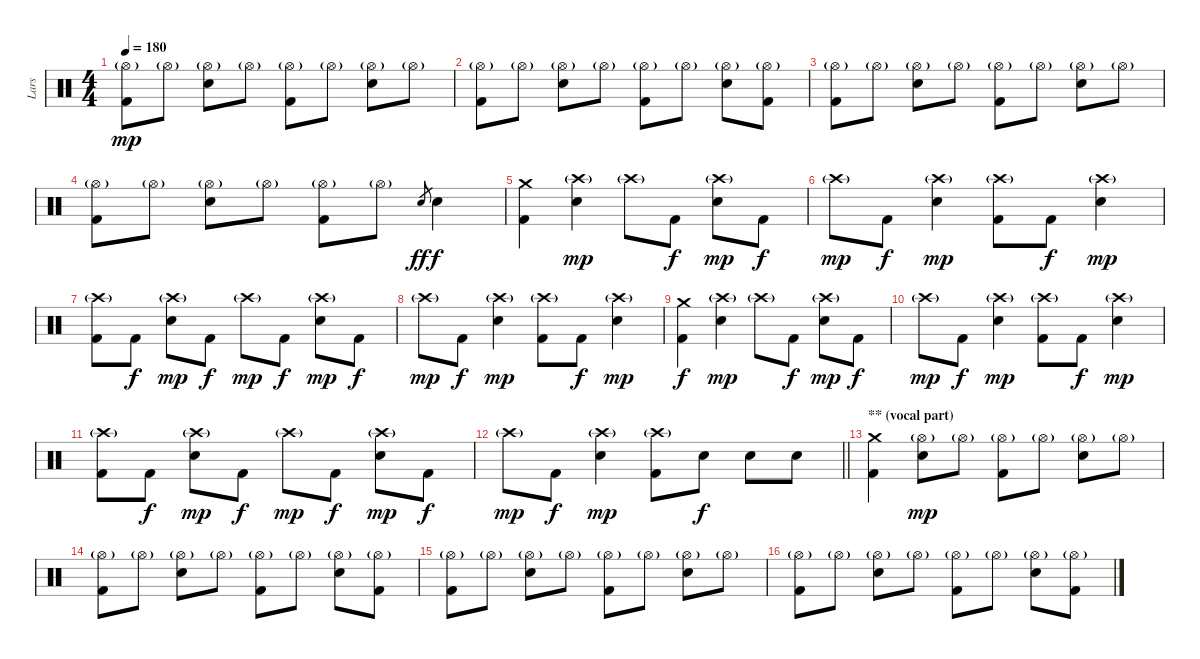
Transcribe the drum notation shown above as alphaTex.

\track ("Lars" "Lars") {instrument percussion}
\staff {score}
\articulation defaults
\ts (4 4)
\tempo 180
\clef neutral
\ks c
("Hi-Hat (open)"{g} "Kick (hit) 2").8{dy mp} "Hi-Hat (open)"{g}.8 ("Hi-Hat (open)"{g} "Electric Snare (hit)").8 "Hi-Hat (open)"{g}.8 ("Hi-Hat (open)"{g} "Kick (hit) 2").8 "Hi-Hat (open)"{g}.8 ("Hi-Hat (open)"{g} "Electric Snare (hit)").8 "Hi-Hat (open)"{g}.8 |
("Hi-Hat (open)"{g} "Kick (hit) 2").8 "Hi-Hat (open)"{g}.8 ("Hi-Hat (open)"{g} "Electric Snare (hit)").8 "Hi-Hat (open)"{g}.8 ("Hi-Hat (open)"{g} "Kick (hit) 2").8 "Hi-Hat (open)"{g}.8 ("Hi-Hat (open)"{g} "Electric Snare (hit)").8 ("Hi-Hat (open)"{g} "Kick (hit) 2").8 |
("Hi-Hat (open)"{g} "Kick (hit) 2").8 "Hi-Hat (open)"{g}.8 ("Hi-Hat (open)"{g} "Electric Snare (hit)").8 "Hi-Hat (open)"{g}.8 ("Hi-Hat (open)"{g} "Kick (hit) 2").8 "Hi-Hat (open)"{g}.8 ("Hi-Hat (open)"{g} "Electric Snare (hit)").8 "Hi-Hat (open)"{g}.8 |
("Hi-Hat (open)"{g} "Kick (hit) 2").8 "Hi-Hat (open)"{g}.8 ("Hi-Hat (open)"{g} "Electric Snare (hit)").8 "Hi-Hat (open)"{g}.8 ("Hi-Hat (open)"{g} "Kick (hit) 2").8 "Hi-Hat (open)"{g}.8 "Electric Snare (hit)".8{gr dy ff} "Electric Snare (hit)".4{dy f} |
("Crash medium (hit)" "Kick (hit) 2").4 ("Crash high (hit)"{g} "Electric Snare (hit)").4{dy mp} "Crash high (hit)"{g}.8 "Kick (hit) 2".8{dy f} ("Crash high (hit)"{g} "Electric Snare (hit)").8{dy mp} "Kick (hit) 2".8{dy f} |
"Crash high (hit)"{g}.8{dy mp} "Kick (hit) 2".8{dy f} ("Crash high (hit)"{g} "Electric Snare (hit)").4{dy mp} ("Crash high (hit)"{g} "Kick (hit) 2").8 "Kick (hit) 2".8{dy f} ("Crash high (hit)"{g} "Electric Snare (hit)").4{dy mp} |
("Crash high (hit)"{g} "Kick (hit) 2").8 "Kick (hit) 2".8{dy f} ("Crash high (hit)"{g} "Electric Snare (hit)").8{dy mp} "Kick (hit) 2".8{dy f} "Crash high (hit)"{g}.8{dy mp} "Kick (hit) 2".8{dy f} ("Crash high (hit)"{g} "Electric Snare (hit)").8{dy mp} "Kick (hit) 2".8{dy f} |
"Crash high (hit)"{g}.8{dy mp} "Kick (hit) 2".8{dy f} ("Crash high (hit)"{g} "Electric Snare (hit)").4{dy mp} ("Crash high (hit)"{g} "Kick (hit) 2").8 "Kick (hit) 2".8{dy f} ("Crash high (hit)"{g} "Electric Snare (hit)").4{dy mp} |
("Crash medium (hit)" "Kick (hit) 2").4{dy f} ("Crash high (hit)"{g} "Electric Snare (hit)").4{dy mp} "Crash high (hit)"{g}.8 "Kick (hit) 2".8{dy f} ("Crash high (hit)"{g} "Electric Snare (hit)").8{dy mp} "Kick (hit) 2".8{dy f} |
"Crash high (hit)"{g}.8{dy mp} "Kick (hit) 2".8{dy f} ("Crash high (hit)"{g} "Electric Snare (hit)").4{dy mp} ("Crash high (hit)"{g} "Kick (hit) 2").8 "Kick (hit) 2".8{dy f} ("Crash high (hit)"{g} "Electric Snare (hit)").4{dy mp} |
("Crash high (hit)"{g} "Kick (hit) 2").8 "Kick (hit) 2".8{dy f} ("Crash high (hit)"{g} "Electric Snare (hit)").8{dy mp} "Kick (hit) 2".8{dy f} "Crash high (hit)"{g}.8{dy mp} "Kick (hit) 2".8{dy f} ("Crash high (hit)"{g} "Electric Snare (hit)").8{dy mp} "Kick (hit) 2".8{dy f} |
\barLineRight lightlight "Crash high (hit)"{g}.8{dy mp} "Kick (hit) 2".8{dy f}
("Crash high (hit)"{g} "Electric Snare (hit)").4{dy mp} ("Crash high (hit)"{g} "Kick (hit) 2").8 "Electric Snare (hit)".8{dy f} "Electric Snare (hit)".8 "Electric Snare (hit)".8 |
\section ("" "** (vocal part)")
("Crash medium (hit)" "Kick (hit) 2").4 ("Hi-Hat (open)"{g} "Electric Snare (hit)").8{dy mp} "Hi-Hat (open)"{g}.8 ("Hi-Hat (open)"{g} "Kick (hit) 2").8 "Hi-Hat (open)"{g}.8 ("Hi-Hat (open)"{g} "Electric Snare (hit)").8 "Hi-Hat (open)"{g}.8 |
("Hi-Hat (open)"{g} "Kick (hit) 2").8 "Hi-Hat (open)"{g}.8 ("Hi-Hat (open)"{g} "Electric Snare (hit)").8 "Hi-Hat (open)"{g}.8 ("Hi-Hat (open)"{g} "Kick (hit) 2").8 "Hi-Hat (open)"{g}.8 ("Hi-Hat (open)"{g} "Electric Snare (hit)").8 ("Hi-Hat (open)"{g} "Kick (hit) 2").8 |
("Hi-Hat (open)"{g} "Kick (hit) 2").8 "Hi-Hat (open)"{g}.8 ("Hi-Hat (open)"{g} "Electric Snare (hit)").8 "Hi-Hat (open)"{g}.8 ("Hi-Hat (open)"{g} "Kick (hit) 2").8 "Hi-Hat (open)"{g}.8 ("Hi-Hat (open)"{g} "Electric Snare (hit)").8 "Hi-Hat (open)"{g}.8 |
("Hi-Hat (open)"{g} "Kick (hit) 2").8 "Hi-Hat (open)"{g}.8 ("Hi-Hat (open)"{g} "Electric Snare (hit)").8 "Hi-Hat (open)"{g}.8 ("Hi-Hat (open)"{g} "Kick (hit) 2").8 "Hi-Hat (open)"{g}.8 ("Hi-Hat (open)"{g} "Electric Snare (hit)").8 ("Hi-Hat (open)"{g} "Kick (hit) 2").8
